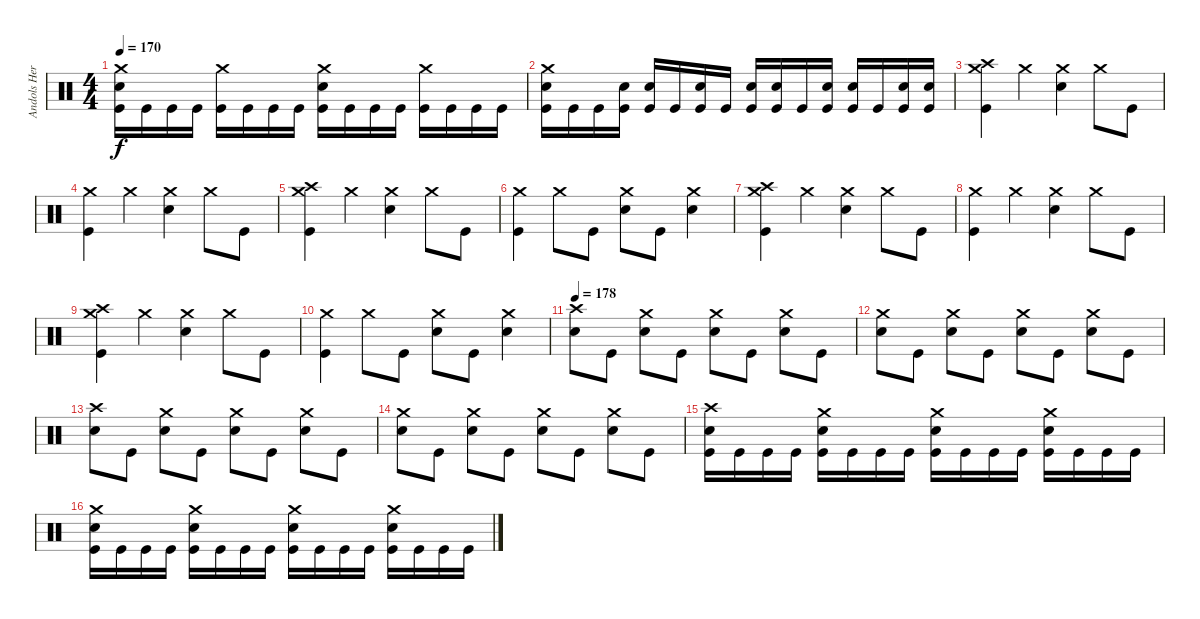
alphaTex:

\track ("Andols Herrick" "Andols Her") {instrument percussion}
\staff {score}
\articulation defaults
\ts (4 4)
\tempo 170
\clef neutral
\ks c
("Crash medium (hit)" "Electric Snare (hit)" "Kick (hit)").16{dy f} "Kick (hit)".16 "Kick (hit)".16 "Kick (hit)".16 ("Crash medium (hit)" "Kick (hit)").16 "Kick (hit)".16 "Kick (hit)".16 "Kick (hit)".16 ("Crash medium (hit)" "Electric Snare (hit)" "Kick (hit)").16 "Kick (hit)".16 "Kick (hit)".16 "Kick (hit)".16 ("Crash medium (hit)" "Kick (hit)").16 "Kick (hit)".16 "Kick (hit)".16 "Kick (hit)".16 |
("Crash medium (hit)" "Electric Snare (hit)" "Kick (hit)").16 "Kick (hit)".16 "Kick (hit)".16 ("Electric Snare (hit)" "Kick (hit)").16 ("Electric Snare (hit)" "Kick (hit)").16 "Kick (hit)".16 ("Electric Snare (hit)" "Kick (hit)").16 "Kick (hit)".16 ("Electric Snare (hit)" "Kick (hit)").16 ("Electric Snare (hit)" "Kick (hit)").16 "Kick (hit)".16 ("Electric Snare (hit)" "Kick (hit)").16 ("Electric Snare (hit)" "Kick (hit)").16 "Kick (hit)".16 ("Electric Snare (hit)" "Kick (hit)").16 ("Electric Snare (hit)" "Kick (hit)").16 |
("Crash medium (hit)" "Crash high (hit)" "Kick (hit)").4 "Crash medium (hit)".4 ("Crash medium (hit)" "Electric Snare (hit)").4 "Crash medium (hit)".8 "Kick (hit)".8 |
("Crash medium (hit)" "Kick (hit)").4 "Crash medium (hit)".4 ("Crash medium (hit)" "Electric Snare (hit)").4 "Crash medium (hit)".8 "Kick (hit)".8 |
("Crash medium (hit)" "Crash high (hit)" "Kick (hit)").4 "Crash medium (hit)".4 ("Crash medium (hit)" "Electric Snare (hit)").4 "Crash medium (hit)".8 "Kick (hit)".8 |
("Crash medium (hit)" "Kick (hit)").4 "Crash medium (hit)".8 "Kick (hit)".8 ("Crash medium (hit)" "Electric Snare (hit)").8 "Kick (hit)".8 ("Crash medium (hit)" "Electric Snare (hit)").4 |
("Crash medium (hit)" "Crash high (hit)" "Kick (hit)").4 "Crash medium (hit)".4 ("Crash medium (hit)" "Electric Snare (hit)").4 "Crash medium (hit)".8 "Kick (hit)".8 |
("Crash medium (hit)" "Kick (hit)").4 "Crash medium (hit)".4 ("Crash medium (hit)" "Electric Snare (hit)").4 "Crash medium (hit)".8 "Kick (hit)".8 |
("Crash medium (hit)" "Crash high (hit)" "Kick (hit)").4 "Crash medium (hit)".4 ("Crash medium (hit)" "Electric Snare (hit)").4 "Crash medium (hit)".8 "Kick (hit)".8 |
("Crash medium (hit)" "Kick (hit)").4 "Crash medium (hit)".8 "Kick (hit)".8 ("Crash medium (hit)" "Electric Snare (hit)").8 "Kick (hit)".8 ("Crash medium (hit)" "Electric Snare (hit)").4 |
\tempo 178
("Crash high (hit)" "Electric Snare (hit)").8 "Kick (hit)".8 ("Crash medium (hit)" "Electric Snare (hit)").8 "Kick (hit)".8 ("Crash medium (hit)" "Electric Snare (hit)").8 "Kick (hit)".8 ("Crash medium (hit)" "Electric Snare (hit)").8 "Kick (hit)".8 |
("Crash medium (hit)" "Electric Snare (hit)").8 "Kick (hit)".8 ("Crash medium (hit)" "Electric Snare (hit)").8 "Kick (hit)".8 ("Crash medium (hit)" "Electric Snare (hit)").8 "Kick (hit)".8 ("Crash medium (hit)" "Electric Snare (hit)").8 "Kick (hit)".8 |
("Crash high (hit)" "Electric Snare (hit)").8 "Kick (hit)".8 ("Crash medium (hit)" "Electric Snare (hit)").8 "Kick (hit)".8 ("Crash medium (hit)" "Electric Snare (hit)").8 "Kick (hit)".8 ("Crash medium (hit)" "Electric Snare (hit)").8 "Kick (hit)".8 |
("Crash medium (hit)" "Electric Snare (hit)").8 "Kick (hit)".8 ("Crash medium (hit)" "Electric Snare (hit)").8 "Kick (hit)".8 ("Crash medium (hit)" "Electric Snare (hit)").8 "Kick (hit)".8 ("Crash medium (hit)" "Electric Snare (hit)").8 "Kick (hit)".8 |
("Crash high (hit)" "Electric Snare (hit)" "Kick (hit)").16 "Kick (hit)".16 "Kick (hit)".16 "Kick (hit)".16 ("Crash medium (hit)" "Electric Snare (hit)" "Kick (hit)").16 "Kick (hit)".16 "Kick (hit)".16 "Kick (hit)".16 ("Crash medium (hit)" "Electric Snare (hit)" "Kick (hit)").16 "Kick (hit)".16 "Kick (hit)".16 "Kick (hit)".16 ("Crash medium (hit)" "Electric Snare (hit)" "Kick (hit)").16 "Kick (hit)".16 "Kick (hit)".16 "Kick (hit)".16 |
("Crash medium (hit)" "Electric Snare (hit)" "Kick (hit)").16 "Kick (hit)".16 "Kick (hit)".16 "Kick (hit)".16 ("Crash medium (hit)" "Electric Snare (hit)" "Kick (hit)").16 "Kick (hit)".16 "Kick (hit)".16 "Kick (hit)".16 ("Crash medium (hit)" "Electric Snare (hit)" "Kick (hit)").16 "Kick (hit)".16 "Kick (hit)".16 "Kick (hit)".16 ("Crash medium (hit)" "Electric Snare (hit)" "Kick (hit)").16 "Kick (hit)".16 "Kick (hit)".16 "Kick (hit)".16
